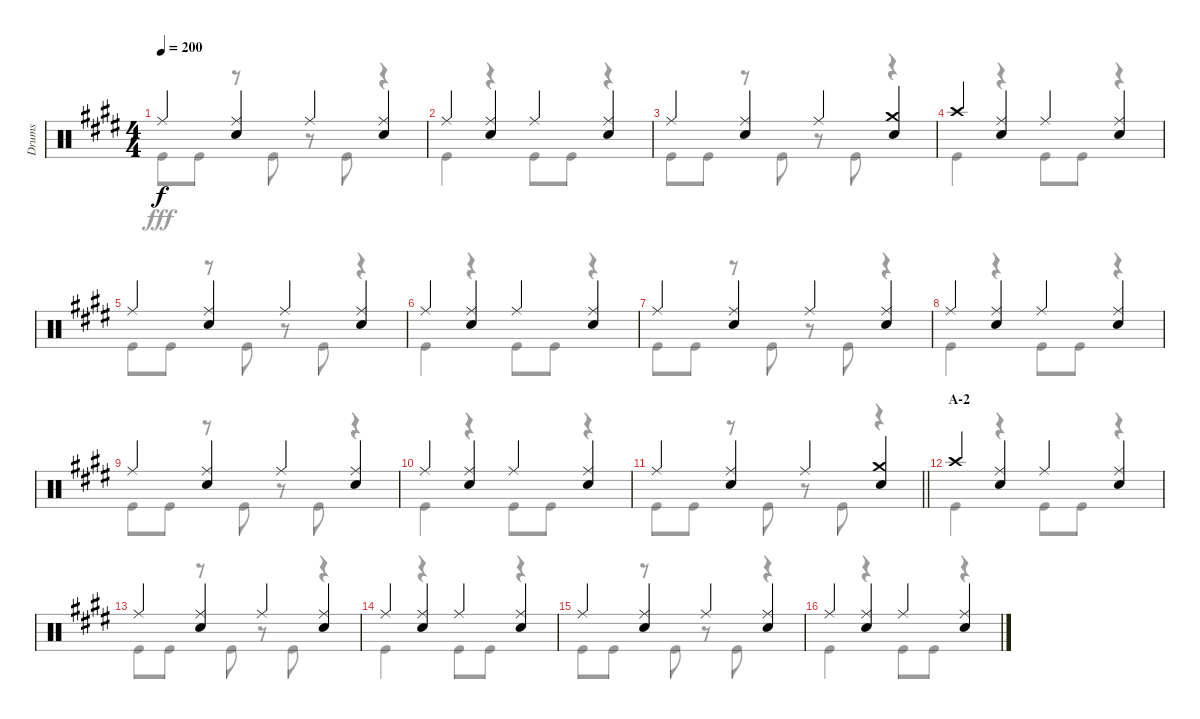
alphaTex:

\track ("Drums" "Drums") {instrument percussion}
\staff {score}
\articulation defaults
\voice
\ts (4 4)
\tempo 200
\clef neutral
\ks e "Ride (middle)".4{dy f}
("Ride (middle)" "Snare (hit) 2").4 "Ride (middle)".4 ("Ride (middle)" "Snare (hit) 2").4 |
"Ride (middle)".4 ("Ride (middle)" "Snare (hit) 2").4 "Ride (middle)".4 ("Ride (middle)" "Snare (hit) 2").4 |
"Ride (middle)".4 ("Ride (middle)" "Snare (hit) 2").4 "Ride (middle)".4 ("Crash medium (hit)" "Snare (hit) 2").4 |
"Crash high (hit)".4 ("Ride (middle)" "Snare (hit) 2").4 "Ride (middle)".4 ("Ride (middle)" "Snare (hit) 2").4 |
"Ride (middle)".4 ("Ride (middle)" "Snare (hit) 2").4 "Ride (middle)".4 ("Ride (middle)" "Snare (hit) 2").4 |
"Ride (middle)".4 ("Ride (middle)" "Snare (hit) 2").4 "Ride (middle)".4 ("Ride (middle)" "Snare (hit) 2").4 |
"Ride (middle)".4 ("Ride (middle)" "Snare (hit) 2").4 "Ride (middle)".4 ("Ride (middle)" "Snare (hit) 2").4 |
"Ride (middle)".4 ("Ride (middle)" "Snare (hit) 2").4 "Ride (middle)".4 ("Ride (middle)" "Snare (hit) 2").4 |
"Ride (middle)".4 ("Ride (middle)" "Snare (hit) 2").4 "Ride (middle)".4 ("Ride (middle)" "Snare (hit) 2").4 |
"Ride (middle)".4 ("Ride (middle)" "Snare (hit) 2").4 "Ride (middle)".4 ("Ride (middle)" "Snare (hit) 2").4 |
\barLineRight lightlight "Ride (middle)".4
("Ride (middle)" "Snare (hit) 2").4 "Ride (middle)".4 ("Crash medium (hit)" "Snare (hit) 2").4 |
\section ("" "A-2")
"Crash high (hit)".4 ("Ride (middle)" "Snare (hit) 2").4 "Ride (middle)".4 ("Ride (middle)" "Snare (hit) 2").4 |
"Ride (middle)".4 ("Ride (middle)" "Snare (hit) 2").4 "Ride (middle)".4 ("Ride (middle)" "Snare (hit) 2").4 |
"Ride (middle)".4 ("Ride (middle)" "Snare (hit) 2").4 "Ride (middle)".4 ("Ride (middle)" "Snare (hit) 2").4 |
"Ride (middle)".4 ("Ride (middle)" "Snare (hit) 2").4 "Ride (middle)".4 ("Ride (middle)" "Snare (hit) 2").4 |
"Ride (middle)".4 ("Ride (middle)" "Snare (hit) 2").4 "Ride (middle)".4 ("Ride (middle)" "Snare (hit) 2").4
\voice
\clef neutral
\ottava regular
\simile none
\ks e "Kick (hit)".8{dy fff} "Kick (hit)".8
r.8 "Kick (hit)".8 r.8 "Kick (hit)".8 r.4 |
"Kick (hit)".4 r.4 "Kick (hit)".8 "Kick (hit)".8 r.4 |
"Kick (hit)".8 "Kick (hit)".8 r.8 "Kick (hit)".8 r.8 "Kick (hit)".8 r.4 |
"Kick (hit)".4 r.4 "Kick (hit)".8 "Kick (hit)".8 r.4 |
"Kick (hit)".8 "Kick (hit)".8 r.8 "Kick (hit)".8 r.8 "Kick (hit)".8 r.4 |
"Kick (hit)".4 r.4 "Kick (hit)".8 "Kick (hit)".8 r.4 |
"Kick (hit)".8 "Kick (hit)".8 r.8 "Kick (hit)".8 r.8 "Kick (hit)".8 r.4 |
"Kick (hit)".4 r.4 "Kick (hit)".8 "Kick (hit)".8 r.4 |
"Kick (hit)".8 "Kick (hit)".8 r.8 "Kick (hit)".8 r.8 "Kick (hit)".8 r.4 |
"Kick (hit)".4 r.4 "Kick (hit)".8 "Kick (hit)".8 r.4 |
\barLineRight lightlight "Kick (hit)".8 "Kick (hit)".8
r.8 "Kick (hit)".8 r.8 "Kick (hit)".8 r.4 |
"Kick (hit)".4 r.4 "Kick (hit)".8 "Kick (hit)".8 r.4 |
"Kick (hit)".8 "Kick (hit)".8 r.8 "Kick (hit)".8 r.8 "Kick (hit)".8 r.4 |
"Kick (hit)".4 r.4 "Kick (hit)".8 "Kick (hit)".8 r.4 |
"Kick (hit)".8 "Kick (hit)".8 r.8 "Kick (hit)".8 r.8 "Kick (hit)".8 r.4 |
"Kick (hit)".4 r.4 "Kick (hit)".8 "Kick (hit)".8 r.4
